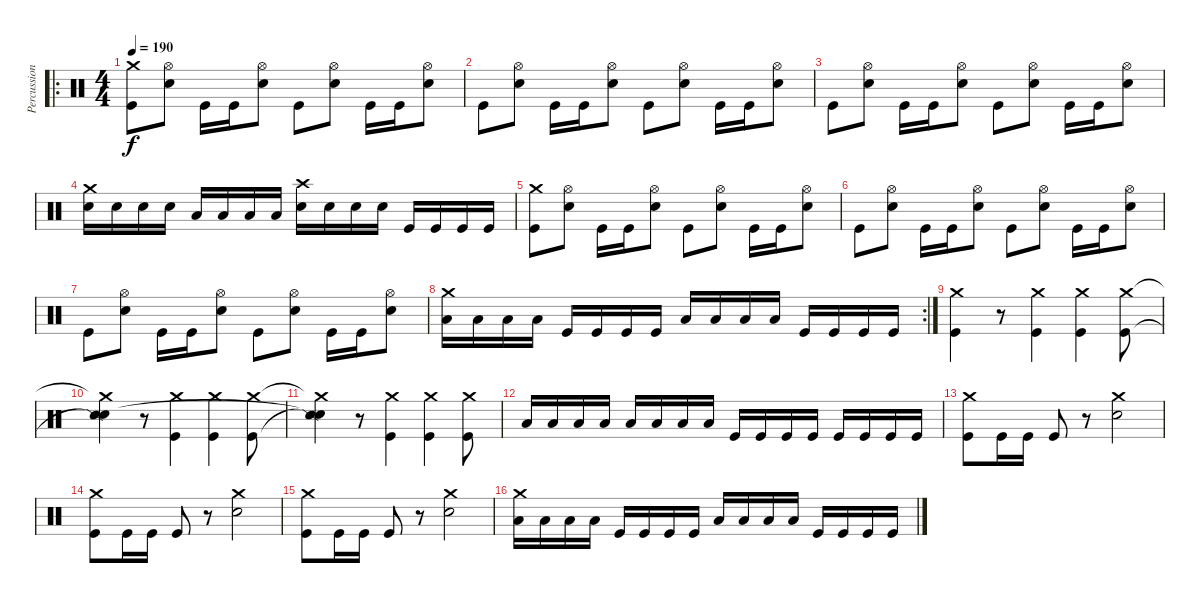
\track ("Percussion" "Percussion") {instrument percussion}
\staff {score}
\articulation defaults
\ro
\ts (4 4)
\tempo 190
\clef neutral
\ks c
("Crash medium (hit)" "Kick (hit)").8{dy f} ("Hi-Hat (open)" "Electric Snare (hit)").8 "Kick (hit)".16 "Kick (hit)".16 ("Hi-Hat (open)" "Electric Snare (hit)").8 "Kick (hit)".8 ("Hi-Hat (open)" "Electric Snare (hit)").8 "Kick (hit)".16 "Kick (hit)".16 ("Hi-Hat (open)" "Electric Snare (hit)").8 |
"Kick (hit)".8 ("Hi-Hat (open)" "Electric Snare (hit)").8 "Kick (hit)".16 "Kick (hit)".16 ("Hi-Hat (open)" "Electric Snare (hit)").8 "Kick (hit)".8 ("Hi-Hat (open)" "Electric Snare (hit)").8 "Kick (hit)".16 "Kick (hit)".16 ("Hi-Hat (open)" "Electric Snare (hit)").8 |
"Kick (hit)".8 ("Hi-Hat (open)" "Electric Snare (hit)").8 "Kick (hit)".16 "Kick (hit)".16 ("Hi-Hat (open)" "Electric Snare (hit)").8 "Kick (hit)".8 ("Hi-Hat (open)" "Electric Snare (hit)").8 "Kick (hit)".16 "Kick (hit)".16 ("Hi-Hat (open)" "Electric Snare (hit)").8 |
("Crash medium (hit)" "Electric Snare (hit)").16 "Electric Snare (hit)".16 "Electric Snare (hit)".16 "Electric Snare (hit)".16 "Low Tom (hit)".16 "Low Tom (hit)".16 "Low Tom (hit)".16 "Low Tom (hit)".16 ("Crash high (hit)" "Electric Snare (hit)").16 "Electric Snare (hit)".16 "Electric Snare (hit)".16 "Electric Snare (hit)".16 "Kick (hit)".16 "Kick (hit)".16 "Kick (hit)".16 "Kick (hit)".16 |
("Crash medium (hit)" "Kick (hit)").8 ("Hi-Hat (open)" "Electric Snare (hit)").8 "Kick (hit)".16 "Kick (hit)".16 ("Hi-Hat (open)" "Electric Snare (hit)").8 "Kick (hit)".8 ("Hi-Hat (open)" "Electric Snare (hit)").8 "Kick (hit)".16 "Kick (hit)".16 ("Hi-Hat (open)" "Electric Snare (hit)").8 |
"Kick (hit)".8 ("Hi-Hat (open)" "Electric Snare (hit)").8 "Kick (hit)".16 "Kick (hit)".16 ("Hi-Hat (open)" "Electric Snare (hit)").8 "Kick (hit)".8 ("Hi-Hat (open)" "Electric Snare (hit)").8 "Kick (hit)".16 "Kick (hit)".16 ("Hi-Hat (open)" "Electric Snare (hit)").8 |
"Kick (hit)".8 ("Hi-Hat (open)" "Electric Snare (hit)").8 "Kick (hit)".16 "Kick (hit)".16 ("Hi-Hat (open)" "Electric Snare (hit)").8 "Kick (hit)".8 ("Hi-Hat (open)" "Electric Snare (hit)").8 "Kick (hit)".16 "Kick (hit)".16 ("Hi-Hat (open)" "Electric Snare (hit)").8 |
\rc 2
("Crash medium (hit)" "Low Tom (hit)").16 "Low Tom (hit)".16 "Low Tom (hit)".16 "Low Tom (hit)".16 "Kick (hit)".16 "Kick (hit)".16 "Kick (hit)".16 "Kick (hit)".16 "Low Tom (hit)".16 "Low Tom (hit)".16 "Low Tom (hit)".16 "Low Tom (hit)".16 "Kick (hit)".16 "Kick (hit)".16 "Kick (hit)".16 "Kick (hit)".16 |
("Crash medium (hit)" "Kick (hit)").4 r.8 ("Crash medium (hit)" "Kick (hit)").4 ("Crash medium (hit)" "Kick (hit)").4 ("Crash medium (hit)" "Kick (hit)").8 |
("Crash medium (hit)"{t} "Snare (hit)"{t} "Snare (side stick) 2").4 r.8 ("Crash medium (hit)" "Kick (hit)").4 ("Crash medium (hit)" "Kick (hit)").4 ("Crash medium (hit)" "Kick (hit)").8 |
("Crash medium (hit)"{t} "Snare (hit)"{t} "Snare (side stick) 2"{t}).4 r.8 ("Crash medium (hit)" "Kick (hit)").4 ("Crash medium (hit)" "Kick (hit)").4 ("Crash medium (hit)" "Kick (hit)").8 |
"Low Tom (hit)".16 "Low Tom (hit)".16 "Low Tom (hit)".16 "Low Tom (hit)".16 "Low Floor Tom (hit)".16 "Low Floor Tom (hit)".16 "Low Floor Tom (hit)".16 "Low Floor Tom (hit)".16 "Kick (hit)".16 "Kick (hit)".16 "Kick (hit)".16 "Kick (hit)".16 "Kick (hit)".16 "Kick (hit)".16 "Kick (hit)".16 "Kick (hit)".16 |
("Crash medium (hit)" "Kick (hit)").8 "Kick (hit)".16 "Kick (hit)".16 "Kick (hit)".8 r.8 ("Crash medium (hit)" "Electric Snare (hit)").2 |
("Crash medium (hit)" "Kick (hit)").8 "Kick (hit)".16 "Kick (hit)".16 "Kick (hit)".8 r.8 ("Crash medium (hit)" "Electric Snare (hit)").2 |
("Crash medium (hit)" "Kick (hit)").8 "Kick (hit)".16 "Kick (hit)".16 "Kick (hit)".8 r.8 ("Crash medium (hit)" "Electric Snare (hit)").2 |
("Crash medium (hit)" "Low Tom (hit)").16 "Low Tom (hit)".16 "Low Tom (hit)".16 "Low Tom (hit)".16 "Kick (hit)".16 "Kick (hit)".16 "Kick (hit)".16 "Kick (hit)".16 "Low Tom (hit)".16 "Low Tom (hit)".16 "Low Tom (hit)".16 "Low Tom (hit)".16 "Kick (hit)".16 "Kick (hit)".16 "Kick (hit)".16 "Kick (hit)".16
